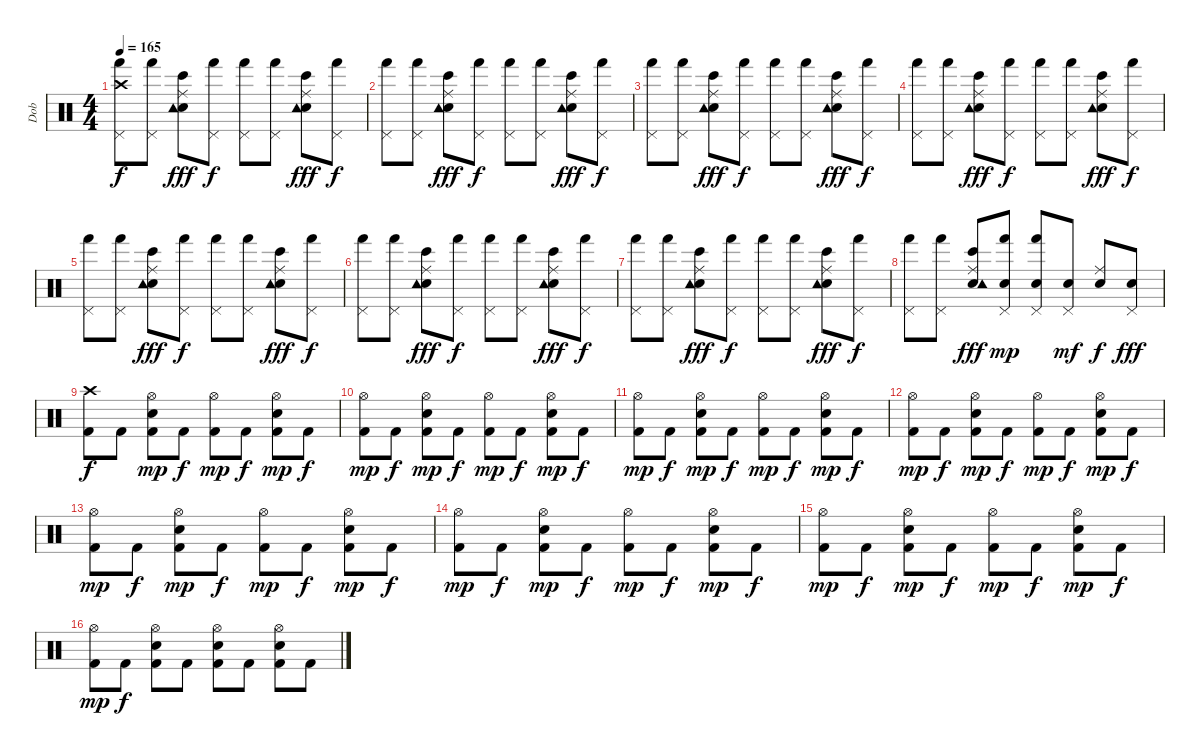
\track ("Dob" "Dob") {instrument percussion}
\staff {score}
\articulation defaults
\ts (4 4)
\tempo 165
\clef neutral
\ks c
("Pedal Hi-Hat (hit)" "Hand (hit)" "Crash high (hit)").8{dy f} ("Pedal Hi-Hat (hit)" "Hand (hit)").8 ("Electric Snare (hit)" "Ride (middle)" "Bongo High (hit)" "Tambourine (hit)").8{dy fff} ("Pedal Hi-Hat (hit)" "Hand (hit)").8{dy f} ("Pedal Hi-Hat (hit)" "Hand (hit)").8 ("Pedal Hi-Hat (hit)" "Hand (hit)").8 ("Electric Snare (hit)" "Ride (middle)" "Bongo High (hit)" "Tambourine (hit)").8{dy fff} ("Pedal Hi-Hat (hit)" "Hand (hit)").8{dy f} |
("Pedal Hi-Hat (hit)" "Hand (hit)").8 ("Pedal Hi-Hat (hit)" "Hand (hit)").8 ("Electric Snare (hit)" "Ride (middle)" "Bongo High (hit)" "Tambourine (hit)").8{dy fff} ("Pedal Hi-Hat (hit)" "Hand (hit)").8{dy f} ("Pedal Hi-Hat (hit)" "Hand (hit)").8 ("Pedal Hi-Hat (hit)" "Hand (hit)").8 ("Electric Snare (hit)" "Ride (middle)" "Bongo High (hit)" "Tambourine (hit)").8{dy fff} ("Pedal Hi-Hat (hit)" "Hand (hit)").8{dy f} |
("Pedal Hi-Hat (hit)" "Hand (hit)").8 ("Pedal Hi-Hat (hit)" "Hand (hit)").8 ("Electric Snare (hit)" "Ride (middle)" "Bongo High (hit)" "Tambourine (hit)").8{dy fff} ("Pedal Hi-Hat (hit)" "Hand (hit)").8{dy f} ("Pedal Hi-Hat (hit)" "Hand (hit)").8 ("Pedal Hi-Hat (hit)" "Hand (hit)").8 ("Electric Snare (hit)" "Ride (middle)" "Bongo High (hit)" "Tambourine (hit)").8{dy fff} ("Pedal Hi-Hat (hit)" "Hand (hit)").8{dy f} |
("Pedal Hi-Hat (hit)" "Hand (hit)").8 ("Pedal Hi-Hat (hit)" "Hand (hit)").8 ("Electric Snare (hit)" "Ride (middle)" "Bongo High (hit)" "Tambourine (hit)").8{dy fff} ("Pedal Hi-Hat (hit)" "Hand (hit)").8{dy f} ("Pedal Hi-Hat (hit)" "Hand (hit)").8 ("Pedal Hi-Hat (hit)" "Hand (hit)").8 ("Electric Snare (hit)" "Ride (middle)" "Bongo High (hit)" "Tambourine (hit)").8{dy fff} ("Pedal Hi-Hat (hit)" "Hand (hit)").8{dy f} |
("Pedal Hi-Hat (hit)" "Hand (hit)").8 ("Pedal Hi-Hat (hit)" "Hand (hit)").8 ("Electric Snare (hit)" "Ride (middle)" "Bongo High (hit)" "Tambourine (hit)").8{dy fff} ("Pedal Hi-Hat (hit)" "Hand (hit)").8{dy f} ("Pedal Hi-Hat (hit)" "Hand (hit)").8 ("Pedal Hi-Hat (hit)" "Hand (hit)").8 ("Electric Snare (hit)" "Ride (middle)" "Bongo High (hit)" "Tambourine (hit)").8{dy fff} ("Pedal Hi-Hat (hit)" "Hand (hit)").8{dy f} |
("Pedal Hi-Hat (hit)" "Hand (hit)").8 ("Pedal Hi-Hat (hit)" "Hand (hit)").8 ("Electric Snare (hit)" "Ride (middle)" "Bongo High (hit)" "Tambourine (hit)").8{dy fff} ("Pedal Hi-Hat (hit)" "Hand (hit)").8{dy f} ("Pedal Hi-Hat (hit)" "Hand (hit)").8 ("Pedal Hi-Hat (hit)" "Hand (hit)").8 ("Electric Snare (hit)" "Ride (middle)" "Bongo High (hit)" "Tambourine (hit)").8{dy fff} ("Pedal Hi-Hat (hit)" "Hand (hit)").8{dy f} |
("Pedal Hi-Hat (hit)" "Hand (hit)").8 ("Pedal Hi-Hat (hit)" "Hand (hit)").8 ("Electric Snare (hit)" "Ride (middle)" "Bongo High (hit)" "Tambourine (hit)").8{dy fff} ("Pedal Hi-Hat (hit)" "Hand (hit)").8{dy f} ("Pedal Hi-Hat (hit)" "Hand (hit)").8 ("Pedal Hi-Hat (hit)" "Hand (hit)").8 ("Electric Snare (hit)" "Ride (middle)" "Bongo High (hit)" "Tambourine (hit)").8{dy fff} ("Pedal Hi-Hat (hit)" "Hand (hit)").8{dy f} |
("Pedal Hi-Hat (hit)" "Hand (hit)").8 ("Pedal Hi-Hat (hit)" "Hand (hit)").8 ("Electric Snare (hit)" "Ride (middle)" "Bongo High (hit)" "Tambourine (hit)").8{dy fff} ("Electric Snare (hit)"{tr (40 16)} "Pedal Hi-Hat (hit)" "Hand (hit)").8{dy mp} ("Electric Snare (hit)"{tr (40 16)} "Pedal Hi-Hat (hit)" "Hand (hit)").8 ("Electric Snare (hit)"{tr (40 16)} "Pedal Hi-Hat (hit)").8{dy mf} ("Electric Snare (hit)"{tr (40 16)} "Ride (middle)").8{dy f} ("Electric Snare (hit)"{tr (40 16)} "Pedal Hi-Hat (hit)").8{dy fff} |
("Kick (hit) 2" "Crash high (hit)").8{dy f} "Kick (hit) 2".8 ("Electric Snare (hit)" "Kick (hit) 2" "Hi-Hat (open)").8{dy mp} "Kick (hit) 2".8{dy f} ("Kick (hit) 2" "Hi-Hat (open)").8{dy mp} "Kick (hit) 2".8{dy f} ("Electric Snare (hit)" "Kick (hit) 2" "Hi-Hat (open)").8{dy mp} "Kick (hit) 2".8{dy f} |
("Kick (hit) 2" "Hi-Hat (open)").8{dy mp} "Kick (hit) 2".8{dy f} ("Electric Snare (hit)" "Kick (hit) 2" "Hi-Hat (open)").8{dy mp} "Kick (hit) 2".8{dy f} ("Kick (hit) 2" "Hi-Hat (open)").8{dy mp} "Kick (hit) 2".8{dy f} ("Electric Snare (hit)" "Kick (hit) 2" "Hi-Hat (open)").8{dy mp} "Kick (hit) 2".8{dy f} |
("Kick (hit) 2" "Hi-Hat (open)").8{dy mp} "Kick (hit) 2".8{dy f} ("Electric Snare (hit)" "Kick (hit) 2" "Hi-Hat (open)").8{dy mp} "Kick (hit) 2".8{dy f} ("Kick (hit) 2" "Hi-Hat (open)").8{dy mp} "Kick (hit) 2".8{dy f} ("Electric Snare (hit)" "Kick (hit) 2" "Hi-Hat (open)").8{dy mp} "Kick (hit) 2".8{dy f} |
("Kick (hit) 2" "Hi-Hat (open)").8{dy mp} "Kick (hit) 2".8{dy f} ("Electric Snare (hit)" "Kick (hit) 2" "Hi-Hat (open)").8{dy mp} "Kick (hit) 2".8{dy f} ("Kick (hit) 2" "Hi-Hat (open)").8{dy mp} "Kick (hit) 2".8{dy f} ("Electric Snare (hit)" "Kick (hit) 2" "Hi-Hat (open)").8{dy mp} "Kick (hit) 2".8{dy f} |
("Kick (hit) 2" "Hi-Hat (open)").8{dy mp} "Kick (hit) 2".8{dy f} ("Electric Snare (hit)" "Kick (hit) 2" "Hi-Hat (open)").8{dy mp} "Kick (hit) 2".8{dy f} ("Kick (hit) 2" "Hi-Hat (open)").8{dy mp} "Kick (hit) 2".8{dy f} ("Electric Snare (hit)" "Kick (hit) 2" "Hi-Hat (open)").8{dy mp} "Kick (hit) 2".8{dy f} |
("Kick (hit) 2" "Hi-Hat (open)").8{dy mp} "Kick (hit) 2".8{dy f} ("Electric Snare (hit)" "Kick (hit) 2" "Hi-Hat (open)").8{dy mp} "Kick (hit) 2".8{dy f} ("Kick (hit) 2" "Hi-Hat (open)").8{dy mp} "Kick (hit) 2".8{dy f} ("Electric Snare (hit)" "Kick (hit) 2" "Hi-Hat (open)").8{dy mp} "Kick (hit) 2".8{dy f} |
("Kick (hit) 2" "Hi-Hat (open)").8{dy mp} "Kick (hit) 2".8{dy f} ("Electric Snare (hit)" "Kick (hit) 2" "Hi-Hat (open)").8{dy mp} "Kick (hit) 2".8{dy f} ("Kick (hit) 2" "Hi-Hat (open)").8{dy mp} "Kick (hit) 2".8{dy f} ("Electric Snare (hit)" "Kick (hit) 2" "Hi-Hat (open)").8{dy mp} "Kick (hit) 2".8{dy f} |
("Kick (hit) 2" "Hi-Hat (open)").8{dy mp} "Kick (hit) 2".8{dy f} ("Electric Snare (hit)" "Kick (hit) 2" "Hi-Hat (open)").8 "Kick (hit) 2".8 ("Electric Snare (hit)" "Kick (hit) 2" "Hi-Hat (open)").8 "Kick (hit) 2".8 ("Electric Snare (hit)" "Kick (hit) 2" "Hi-Hat (open)").8 "Kick (hit) 2".8
